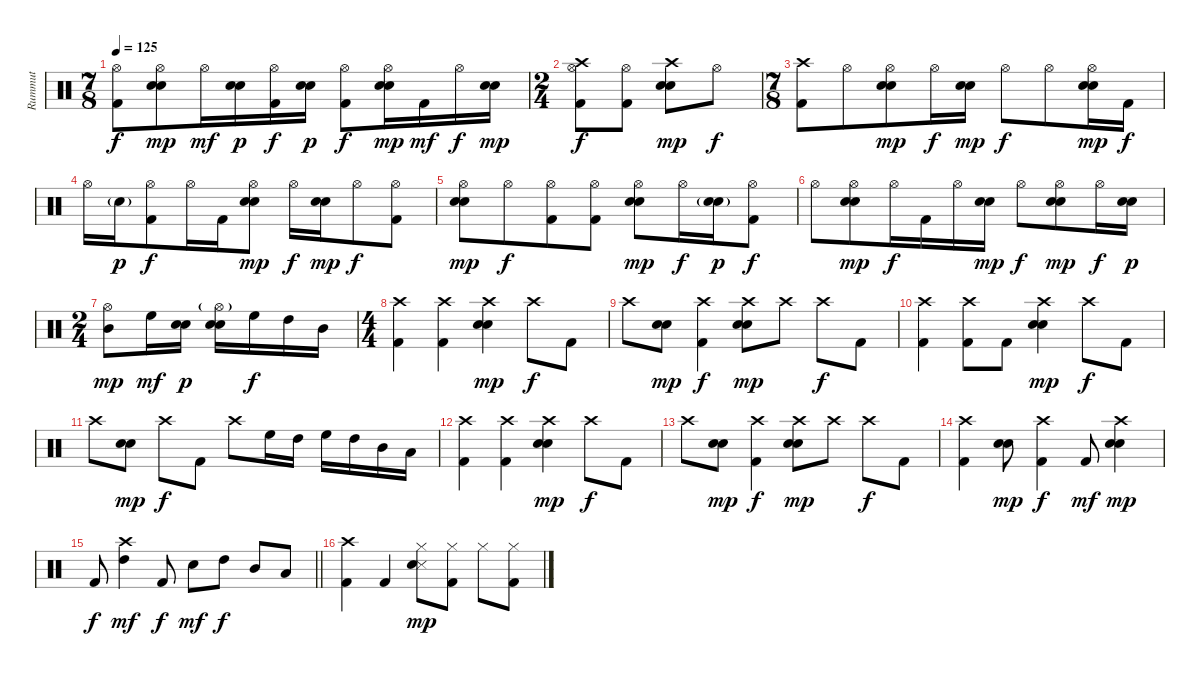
\track ("Rummut" "Rummut") {instrument percussion}
\staff {score}
\articulation defaults
\ts (7 8)
\tempo 125
\clef neutral
\ks c
("Hi-Hat (open)" "Kick (hit) 2").8{dy f} ("Hi-Hat (open)" "Electric Snare (hit)" "Snare (hit) 2").8{dy mp} "Hi-Hat (open)".16{dy mf} ("Electric Snare (hit)" "Snare (hit) 2").16{dy p} ("Hi-Hat (open)" "Kick (hit) 2").16{dy f} ("Electric Snare (hit)" "Snare (hit) 2").16{dy p} ("Hi-Hat (open)" "Kick (hit) 2").8{dy f} ("Hi-Hat (open)" "Electric Snare (hit)" "Snare (hit) 2").16{dy mp} "Kick (hit) 2".16{dy mf} "Hi-Hat (open)".16{dy f} ("Electric Snare (hit)" "Snare (hit) 2").16{dy mp} |
\ts (2 4)
("Crash high (hit)" "Hi-Hat (open)" "Kick (hit) 2").8{dy f} ("Hi-Hat (open)" "Kick (hit) 2").8 ("Crash high (hit)" "Electric Snare (hit)" "Snare (hit) 2").8{dy mp} "Hi-Hat (open)".8{dy f} |
\ts (7 8)
("Crash high (hit)" "Kick (hit) 2").8 "Hi-Hat (open)".8 ("Hi-Hat (open)" "Electric Snare (hit)" "Snare (hit) 2").8{dy mp} "Hi-Hat (open)".16{dy f} ("Electric Snare (hit)" "Snare (hit) 2").16{dy mp} "Hi-Hat (open)".8{dy f} "Hi-Hat (open)".8 ("Hi-Hat (open)" "Electric Snare (hit)" "Snare (hit) 2").16{dy mp} "Kick (hit) 2".16{dy f} |
"Hi-Hat (open)".16 "Snare (hit) 2"{g}.16{dy p} ("Hi-Hat (open)" "Kick (hit) 2").8{dy f} "Hi-Hat (open)".16 "Kick (hit) 2".16 ("Hi-Hat (open)" "Electric Snare (hit)" "Snare (hit) 2").8{dy mp} "Hi-Hat (open)".16{dy f} ("Electric Snare (hit)" "Snare (hit) 2").16{dy mp} "Hi-Hat (open)".8{dy f} ("Hi-Hat (open)" "Kick (hit) 2").8 |
("Hi-Hat (open)" "Electric Snare (hit)" "Snare (hit) 2").8{dy mp} "Hi-Hat (open)".8{dy f} ("Hi-Hat (open)" "Kick (hit) 2").8 ("Hi-Hat (open)" "Kick (hit) 2").8 ("Hi-Hat (open)" "Electric Snare (hit)" "Snare (hit) 2").8{dy mp} "Hi-Hat (open)".16{dy f} ("Electric Snare (hit)"{g} "Snare (hit) 2"{g}).16{dy p} ("Hi-Hat (open)" "Kick (hit) 2").8{dy f} |
"Hi-Hat (open)".8 ("Hi-Hat (open)" "Electric Snare (hit)" "Snare (hit) 2").8{dy mp} "Hi-Hat (open)".16{dy f} "Kick (hit) 2".16 "Hi-Hat (open)".16 ("Electric Snare (hit)" "Snare (hit) 2").16{dy mp} "Hi-Hat (open)".8{dy f} ("Hi-Hat (open)" "Electric Snare (hit)" "Snare (hit) 2").8{dy mp} "Hi-Hat (open)".16{dy f} ("Electric Snare (hit)" "Snare (hit) 2").16{dy p} |
\ts (2 4)
("Hi-Hat (open)" "Mid Tom (hit)").8{dy mp} "High Floor Tom (hit)".16{dy mf} ("Electric Snare (hit)" "Snare (hit) 2").16{dy p} ("Hi-Hat (open)"{g} "Electric Snare (hit)" "Snare (hit) 2").16 "High Floor Tom (hit)".16{dy f} "High Tom (hit)".16 "Mid Tom (hit)".16 |
\ts (4 4)
("Crash high (hit)" "Kick (hit) 2").4 ("Crash high (hit)" "Kick (hit) 2").4 ("Crash high (hit)" "Electric Snare (hit)" "Snare (hit) 2").4{dy mp} "Crash high (hit)".8{dy f} "Kick (hit) 2".8 |
"Crash high (hit)".8 ("Electric Snare (hit)" "Snare (hit) 2").8{dy mp} ("Crash high (hit)" "Kick (hit) 2").4{dy f} ("Crash high (hit)" "Electric Snare (hit)" "Snare (hit) 2").8{dy mp} "Crash high (hit)".8 "Crash high (hit)".8{dy f} "Kick (hit) 2".8 |
("Crash high (hit)" "Kick (hit) 2").4 ("Crash high (hit)" "Kick (hit) 2").8 "Kick (hit) 2".8 ("Crash high (hit)" "Electric Snare (hit)" "Snare (hit) 2").4{dy mp} "Crash high (hit)".8{dy f} "Kick (hit) 2".8 |
"Crash high (hit)".8 ("Electric Snare (hit)" "Snare (hit) 2").8{dy mp} "Crash high (hit)".8{dy f} "Kick (hit) 2".8 "Crash high (hit)".8 "High Floor Tom (hit)".16 "High Tom (hit)".16 "High Floor Tom (hit)".16 "High Tom (hit)".16 "Mid Tom (hit)".16 "Low Tom (hit)".16 |
("Crash high (hit)" "Kick (hit) 2").4 ("Crash high (hit)" "Kick (hit) 2").4 ("Crash high (hit)" "Electric Snare (hit)" "Snare (hit) 2").4{dy mp} "Crash high (hit)".8{dy f} "Kick (hit) 2".8 |
"Crash high (hit)".8 ("Electric Snare (hit)" "Snare (hit) 2").8{dy mp} ("Crash high (hit)" "Kick (hit) 2").4{dy f} ("Crash high (hit)" "Electric Snare (hit)" "Snare (hit) 2").8{dy mp} "Crash high (hit)".8 "Crash high (hit)".8{dy f} "Kick (hit) 2".8 |
("Crash high (hit)" "Kick (hit) 2").4 ("Electric Snare (hit)" "Snare (hit) 2").8{dy mp} ("Crash high (hit)" "Kick (hit) 2").4{dy f} "Kick (hit) 2".8{dy mf} ("Crash high (hit)" "Electric Snare (hit)" "Snare (hit) 2").4{dy mp} |
\barLineRight lightlight "Kick (hit) 2".8{dy f}
("Crash high (hit)" "High Tom (hit)").4{dy mf} "Kick (hit) 2".8{dy f} "Electric Snare (hit)".8{dy mf} "High Tom (hit)".8{dy f} "Mid Tom (hit)".8 "Low Tom (hit)".8 |
\section ("" "")
("Crash high (hit)" "Kick (hit) 2").4{volume 10} "Kick (hit) 2".4 ("Hi-Hat (closed)" "Snare (side stick) 3" "Electric Snare (hit)").8{dy mp} ("Hi-Hat (closed)" "Kick (hit) 2").8 "Hi-Hat (closed)".8 ("Hi-Hat (closed)" "Kick (hit) 2").8
